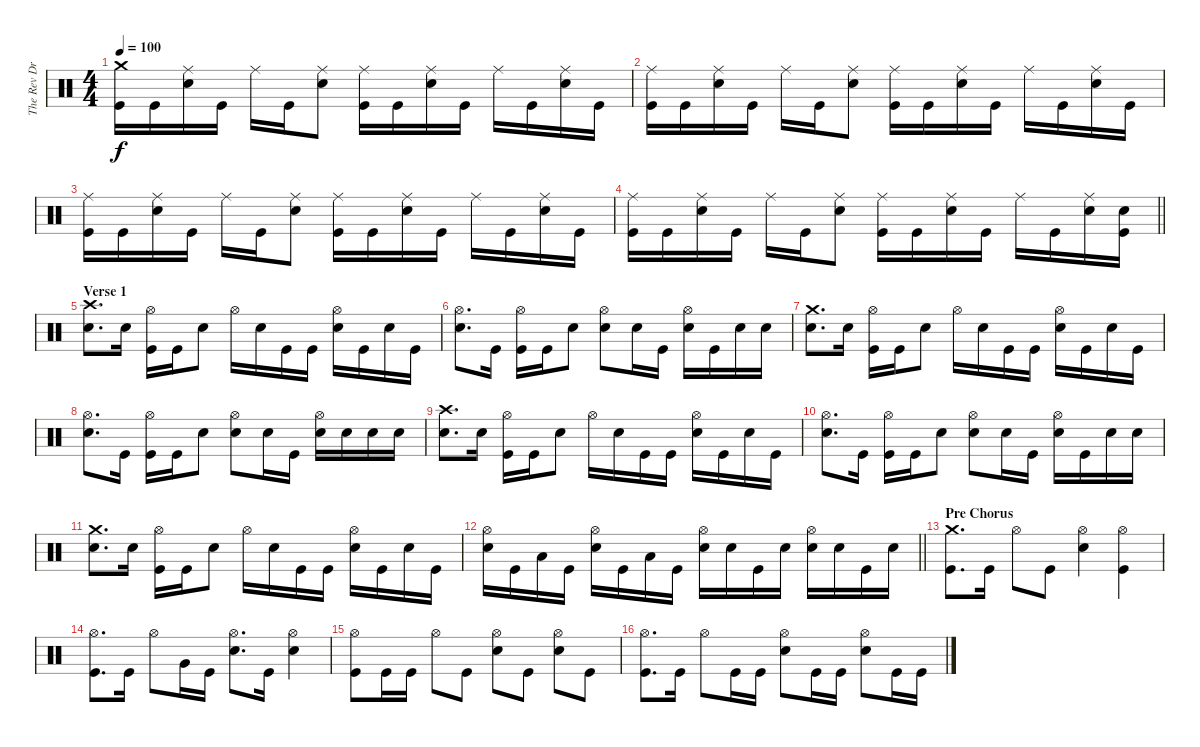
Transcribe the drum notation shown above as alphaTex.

\track ("The Rev Drums" "The Rev Dr") {instrument percussion}
\staff {score}
\articulation defaults
\ts (4 4)
\tempo 100
\clef neutral
\ks c
("Crash medium (hit)" "Kick (hit)").16{dy f} "Kick (hit)".16 ("Ride (middle)" "Electric Snare (hit)").16 "Kick (hit)".16 "Ride (middle)".16 "Kick (hit)".16 ("Ride (middle)" "Electric Snare (hit)").8 ("Ride (middle)" "Kick (hit)").16 "Kick (hit)".16 ("Ride (middle)" "Electric Snare (hit)").16 "Kick (hit)".16 "Ride (middle)".16 "Kick (hit)".16 ("Ride (middle)" "Electric Snare (hit)").16 "Kick (hit)".16 |
("Ride (middle)" "Kick (hit)").16 "Kick (hit)".16 ("Ride (middle)" "Electric Snare (hit)").16 "Kick (hit)".16 "Ride (middle)".16 "Kick (hit)".16 ("Ride (middle)" "Electric Snare (hit)").8 ("Ride (middle)" "Kick (hit)").16 "Kick (hit)".16 ("Ride (middle)" "Electric Snare (hit)").16 "Kick (hit)".16 "Ride (middle)".16 "Kick (hit)".16 ("Ride (middle)" "Electric Snare (hit)").16 "Kick (hit)".16 |
("Ride (middle)" "Kick (hit)").16 "Kick (hit)".16 ("Ride (middle)" "Electric Snare (hit)").16 "Kick (hit)".16 "Ride (middle)".16 "Kick (hit)".16 ("Ride (middle)" "Electric Snare (hit)").8 ("Ride (middle)" "Kick (hit)").16 "Kick (hit)".16 ("Ride (middle)" "Electric Snare (hit)").16 "Kick (hit)".16 "Ride (middle)".16 "Kick (hit)".16 ("Ride (middle)" "Electric Snare (hit)").16 "Kick (hit)".16 |
\barLineRight lightlight
("Ride (middle)" "Kick (hit)").16 "Kick (hit)".16 ("Ride (middle)" "Electric Snare (hit)").16 "Kick (hit)".16 "Ride (middle)".16 "Kick (hit)".16 ("Ride (middle)" "Electric Snare (hit)").8 ("Ride (middle)" "Kick (hit)").16 "Kick (hit)".16 ("Ride (middle)" "Electric Snare (hit)").16 "Kick (hit)".16 "Ride (middle)".16 "Kick (hit)".16 ("Ride (middle)" "Electric Snare (hit)").16 ("Electric Snare (hit)" "Kick (hit)").16 |
\section ("" "Verse 1")
("Crash high (hit)" "Electric Snare (hit)").8{d} "Electric Snare (hit)".16 ("Hi-Hat (open)" "Kick (hit)").16 "Kick (hit)".16 "Electric Snare (hit)".8 "Hi-Hat (open)".16 "Electric Snare (hit)".16 "Kick (hit)".16 "Kick (hit)".16 ("Hi-Hat (open)" "Electric Snare (hit)").16 "Kick (hit)".16 "Electric Snare (hit)".16 "Kick (hit)".16 |
("Hi-Hat (open)" "Electric Snare (hit)").8{d} "Kick (hit)".16 ("Hi-Hat (open)" "Kick (hit)").16 "Kick (hit)".16 "Electric Snare (hit)".8 ("Hi-Hat (open)" "Electric Snare (hit)").8 "Electric Snare (hit)".16 "Kick (hit)".16 ("Hi-Hat (open)" "Electric Snare (hit)").16 "Kick (hit)".16 "Electric Snare (hit)".16 "Electric Snare (hit)".16 |
("Crash medium (hit)" "Electric Snare (hit)").8{d} "Electric Snare (hit)".16 ("Hi-Hat (open)" "Kick (hit)").16 "Kick (hit)".16 "Electric Snare (hit)".8 "Hi-Hat (open)".16 "Electric Snare (hit)".16 "Kick (hit)".16 "Kick (hit)".16 ("Hi-Hat (open)" "Electric Snare (hit)").16 "Kick (hit)".16 "Electric Snare (hit)".16 "Kick (hit)".16 |
("Hi-Hat (open)" "Electric Snare (hit)").8{d} "Kick (hit)".16 ("Hi-Hat (open)" "Kick (hit)").16 "Kick (hit)".16 "Electric Snare (hit)".8 ("Hi-Hat (open)" "Electric Snare (hit)").8 "Electric Snare (hit)".16 "Kick (hit)".16 ("Hi-Hat (open)" "Electric Snare (hit)").16 "Electric Snare (hit)".16 "Electric Snare (hit)".16 "Electric Snare (hit)".16 |
("Crash high (hit)" "Electric Snare (hit)").8{d} "Electric Snare (hit)".16 ("Hi-Hat (open)" "Kick (hit)").16 "Kick (hit)".16 "Electric Snare (hit)".8 "Hi-Hat (open)".16 "Electric Snare (hit)".16 "Kick (hit)".16 "Kick (hit)".16 ("Hi-Hat (open)" "Electric Snare (hit)").16 "Kick (hit)".16 "Electric Snare (hit)".16 "Kick (hit)".16 |
("Hi-Hat (open)" "Electric Snare (hit)").8{d} "Kick (hit)".16 ("Hi-Hat (open)" "Kick (hit)").16 "Kick (hit)".16 "Electric Snare (hit)".8 ("Hi-Hat (open)" "Electric Snare (hit)").8 "Electric Snare (hit)".16 "Kick (hit)".16 ("Hi-Hat (open)" "Electric Snare (hit)").16 "Kick (hit)".16 "Electric Snare (hit)".16 "Electric Snare (hit)".16 |
("Crash medium (hit)" "Electric Snare (hit)").8{d} "Electric Snare (hit)".16 ("Hi-Hat (open)" "Kick (hit)").16 "Kick (hit)".16 "Electric Snare (hit)".8 "Hi-Hat (open)".16 "Electric Snare (hit)".16 "Kick (hit)".16 "Kick (hit)".16 ("Hi-Hat (open)" "Electric Snare (hit)").16 "Kick (hit)".16 "Electric Snare (hit)".16 "Kick (hit)".16 |
\barLineRight lightlight
("Hi-Hat (open)" "Electric Snare (hit)").16 "Kick (hit)".16 "Low Tom (hit)".16 "Kick (hit)".16 ("Hi-Hat (open)" "Electric Snare (hit)").16 "Kick (hit)".16 "Low Tom (hit)".16 "Kick (hit)".16 ("Hi-Hat (open)" "Electric Snare (hit)").16 "Electric Snare (hit)".16 "Kick (hit)".16 "Electric Snare (hit)".16 ("Hi-Hat (open)" "Electric Snare (hit)").16 "Electric Snare (hit)".16 "Kick (hit)".16 "Electric Snare (hit)".16 |
\section ("" "Pre Chorus")
("Crash medium (hit)" "Kick (hit)").8{d} "Kick (hit)".16 "Hi-Hat (open)".8 "Kick (hit)".8 ("Hi-Hat (open)" "Electric Snare (hit)").4 ("Hi-Hat (open)" "Kick (hit)").4 |
("Hi-Hat (open)" "Kick (hit)").8{d} "Kick (hit)".16 "Hi-Hat (open)".8 "Very Low Tom (hit)".16 "Kick (hit)".16 ("Hi-Hat (open)" "Electric Snare (hit)").8{d} "Kick (hit)".16 ("Hi-Hat (open)" "Electric Snare (hit)").4 |
("Hi-Hat (open)" "Kick (hit)").8 "Kick (hit)".16 "Kick (hit)".16 "Hi-Hat (open)".8 "Kick (hit)".8 ("Hi-Hat (open)" "Electric Snare (hit)").8 "Kick (hit)".8 ("Hi-Hat (open)" "Electric Snare (hit)").8 "Kick (hit)".8 |
("Hi-Hat (open)" "Kick (hit)").8{d} "Kick (hit)".16 "Hi-Hat (open)".8 "Kick (hit)".16 "Kick (hit)".16 ("Hi-Hat (open)" "Electric Snare (hit)").8 "Kick (hit)".16 "Kick (hit)".16 ("Hi-Hat (open)" "Electric Snare (hit)").8 "Kick (hit)".16 "Kick (hit)".16
